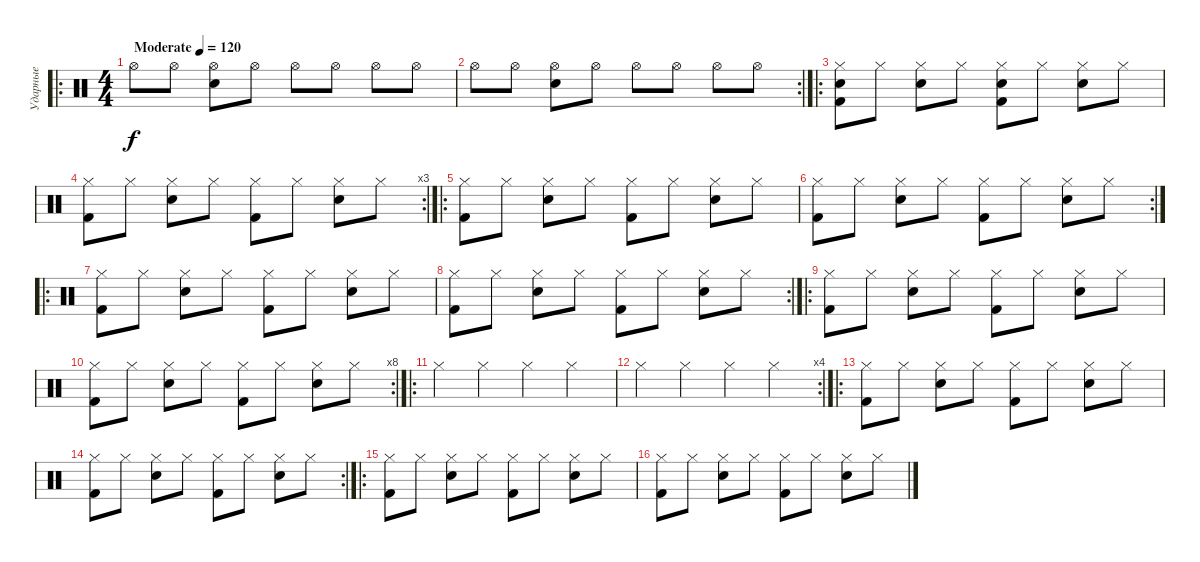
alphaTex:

\track ("Ударные" "Ударные") {instrument percussion}
\staff {score}
\articulation defaults
\ro
\ts (4 4)
\tempo (120 "Moderate")
\clef neutral
\ks c "Hi-Hat (open)".8{dy f} "Hi-Hat (open)".8
("Hi-Hat (open)" "Snare (hit) 2").8 "Hi-Hat (open)".8 "Hi-Hat (open)".8 "Hi-Hat (open)".8 "Hi-Hat (open)".8 "Hi-Hat (open)".8 |
\rc 2 "Hi-Hat (open)".8 "Hi-Hat (open)".8
("Hi-Hat (open)" "Snare (hit) 2").8 "Hi-Hat (open)".8 "Hi-Hat (open)".8 "Hi-Hat (open)".8 "Hi-Hat (open)".8 "Hi-Hat (open)".8 |
\ro
("Hi-Hat (closed)" "Snare (hit) 2" "Kick (hit) 2").8 "Hi-Hat (closed)".8 ("Hi-Hat (closed)" "Electric Snare (hit)").8 "Hi-Hat (closed)".8 ("Hi-Hat (closed)" "Snare (hit) 2" "Kick (hit) 2").8 "Hi-Hat (closed)".8 ("Hi-Hat (closed)" "Electric Snare (hit)").8 "Hi-Hat (closed)".8 |
\rc 3
("Hi-Hat (closed)" "Kick (hit) 2").8 "Hi-Hat (closed)".8 ("Hi-Hat (closed)" "Electric Snare (hit)").8 "Hi-Hat (closed)".8 ("Hi-Hat (closed)" "Kick (hit) 2").8 "Hi-Hat (closed)".8 ("Hi-Hat (closed)" "Electric Snare (hit)").8 "Hi-Hat (closed)".8 |
\ro
("Hi-Hat (closed)" "Kick (hit) 2").8 "Hi-Hat (closed)".8 ("Hi-Hat (closed)" "Electric Snare (hit)").8 "Hi-Hat (closed)".8 ("Hi-Hat (closed)" "Kick (hit) 2").8 "Hi-Hat (closed)".8 ("Hi-Hat (closed)" "Electric Snare (hit)").8 "Hi-Hat (closed)".8 |
\rc 2
("Hi-Hat (closed)" "Kick (hit) 2").8 "Hi-Hat (closed)".8 ("Hi-Hat (closed)" "Electric Snare (hit)").8 "Hi-Hat (closed)".8 ("Hi-Hat (closed)" "Kick (hit) 2").8 "Hi-Hat (closed)".8 ("Hi-Hat (closed)" "Electric Snare (hit)").8 "Hi-Hat (closed)".8 |
\ro
("Hi-Hat (closed)" "Kick (hit) 2").8 "Hi-Hat (closed)".8 ("Hi-Hat (closed)" "Electric Snare (hit)").8 "Hi-Hat (closed)".8 ("Hi-Hat (closed)" "Kick (hit) 2").8 "Hi-Hat (closed)".8 ("Hi-Hat (closed)" "Electric Snare (hit)").8 "Hi-Hat (closed)".8 |
\rc 2
("Hi-Hat (closed)" "Kick (hit) 2").8 "Hi-Hat (closed)".8 ("Hi-Hat (closed)" "Electric Snare (hit)").8 "Hi-Hat (closed)".8 ("Hi-Hat (closed)" "Kick (hit) 2").8 "Hi-Hat (closed)".8 ("Hi-Hat (closed)" "Electric Snare (hit)").8 "Hi-Hat (closed)".8 |
\ro
("Hi-Hat (closed)" "Kick (hit) 2").8 "Hi-Hat (closed)".8 ("Hi-Hat (closed)" "Electric Snare (hit)").8 "Hi-Hat (closed)".8 ("Hi-Hat (closed)" "Kick (hit) 2").8 "Hi-Hat (closed)".8 ("Hi-Hat (closed)" "Electric Snare (hit)").8 "Hi-Hat (closed)".8 |
\rc 8
("Hi-Hat (closed)" "Kick (hit) 2").8 "Hi-Hat (closed)".8 ("Hi-Hat (closed)" "Electric Snare (hit)").8 "Hi-Hat (closed)".8 ("Hi-Hat (closed)" "Kick (hit) 2").8 "Hi-Hat (closed)".8 ("Hi-Hat (closed)" "Electric Snare (hit)").8 "Hi-Hat (closed)".8 |
\ro "Hi-Hat (closed)".4 "Hi-Hat (closed)".4 "Hi-Hat (closed)".4 "Hi-Hat (closed)".4
|
\rc 4 "Hi-Hat (closed)".4 "Hi-Hat (closed)".4 "Hi-Hat (closed)".4 "Hi-Hat (closed)".4
|
\ro
("Hi-Hat (closed)" "Kick (hit) 2").8 "Hi-Hat (closed)".8 ("Hi-Hat (closed)" "Electric Snare (hit)").8 "Hi-Hat (closed)".8 ("Hi-Hat (closed)" "Kick (hit) 2").8 "Hi-Hat (closed)".8 ("Hi-Hat (closed)" "Electric Snare (hit)").8 "Hi-Hat (closed)".8 |
\rc 2
("Hi-Hat (closed)" "Kick (hit) 2").8 "Hi-Hat (closed)".8 ("Hi-Hat (closed)" "Electric Snare (hit)").8 "Hi-Hat (closed)".8 ("Hi-Hat (closed)" "Kick (hit) 2").8 "Hi-Hat (closed)".8 ("Hi-Hat (closed)" "Electric Snare (hit)").8 "Hi-Hat (closed)".8 |
\ro
("Hi-Hat (closed)" "Kick (hit) 2").8 "Hi-Hat (closed)".8 ("Hi-Hat (closed)" "Electric Snare (hit)").8 "Hi-Hat (closed)".8 ("Hi-Hat (closed)" "Kick (hit) 2").8 "Hi-Hat (closed)".8 ("Hi-Hat (closed)" "Electric Snare (hit)").8 "Hi-Hat (closed)".8 |
("Hi-Hat (closed)" "Kick (hit) 2").8 "Hi-Hat (closed)".8 ("Hi-Hat (closed)" "Electric Snare (hit)").8 "Hi-Hat (closed)".8 ("Hi-Hat (closed)" "Kick (hit) 2").8 "Hi-Hat (closed)".8 ("Hi-Hat (closed)" "Electric Snare (hit)").8 "Hi-Hat (closed)".8
